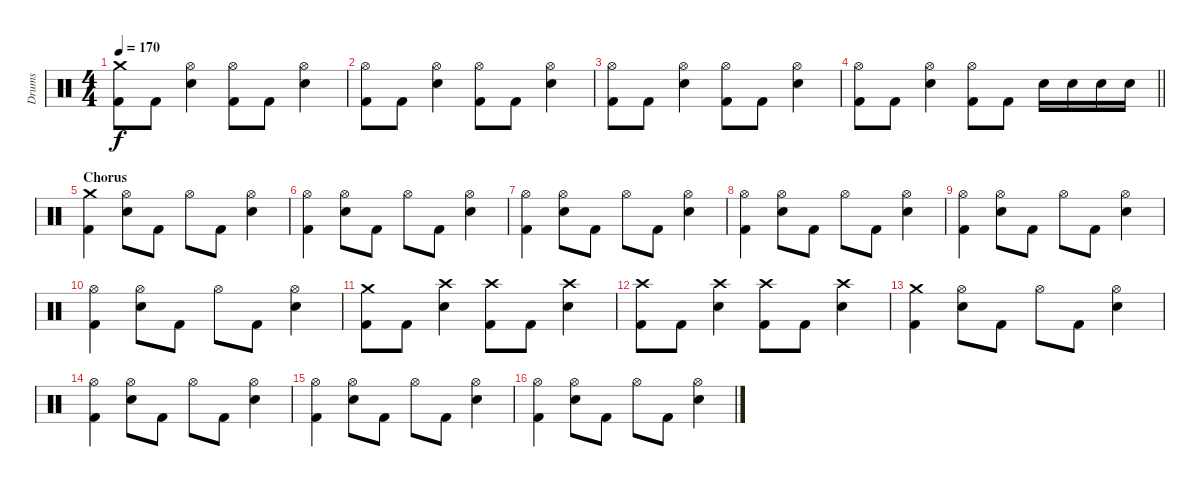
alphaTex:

\track ("Drums" "Drums") {instrument percussion}
\staff {score}
\articulation defaults
\ts (4 4)
\tempo 170
\clef neutral
\ks c
("Crash medium (hit)" "Kick (hit) 2").8{dy f} "Kick (hit) 2".8 ("Hi-Hat (open)" "Electric Snare (hit)").4 ("Hi-Hat (open)" "Kick (hit) 2").8 "Kick (hit) 2".8 ("Hi-Hat (open)" "Electric Snare (hit)").4 |
("Hi-Hat (open)" "Kick (hit) 2").8 "Kick (hit) 2".8 ("Hi-Hat (open)" "Electric Snare (hit)").4 ("Hi-Hat (open)" "Kick (hit) 2").8 "Kick (hit) 2".8 ("Hi-Hat (open)" "Electric Snare (hit)").4 |
("Hi-Hat (open)" "Kick (hit) 2").8 "Kick (hit) 2".8 ("Hi-Hat (open)" "Electric Snare (hit)").4 ("Hi-Hat (open)" "Kick (hit) 2").8 "Kick (hit) 2".8 ("Hi-Hat (open)" "Electric Snare (hit)").4 |
\barLineRight lightlight
("Hi-Hat (open)" "Kick (hit) 2").8 "Kick (hit) 2".8 ("Hi-Hat (open)" "Electric Snare (hit)").4 ("Hi-Hat (open)" "Kick (hit) 2").8 "Kick (hit) 2".8 "Electric Snare (hit)".16 "Electric Snare (hit)".16 "Electric Snare (hit)".16 "Electric Snare (hit)".16 |
\section ("" "Chorus")
("Crash medium (hit)" "Kick (hit) 2").4 ("Hi-Hat (open)" "Electric Snare (hit)").8 "Kick (hit) 2".8 "Hi-Hat (open)".8 "Kick (hit) 2".8 ("Hi-Hat (open)" "Electric Snare (hit)").4 |
("Hi-Hat (open)" "Kick (hit) 2").4 ("Hi-Hat (open)" "Electric Snare (hit)").8 "Kick (hit) 2".8 "Hi-Hat (open)".8 "Kick (hit) 2".8 ("Hi-Hat (open)" "Electric Snare (hit)").4 |
("Hi-Hat (open)" "Kick (hit) 2").4 ("Hi-Hat (open)" "Electric Snare (hit)").8 "Kick (hit) 2".8 "Hi-Hat (open)".8 "Kick (hit) 2".8 ("Hi-Hat (open)" "Electric Snare (hit)").4 |
("Hi-Hat (open)" "Kick (hit) 2").4 ("Hi-Hat (open)" "Electric Snare (hit)").8 "Kick (hit) 2".8 "Hi-Hat (open)".8 "Kick (hit) 2".8 ("Hi-Hat (open)" "Electric Snare (hit)").4 |
("Hi-Hat (open)" "Kick (hit) 2").4 ("Hi-Hat (open)" "Electric Snare (hit)").8 "Kick (hit) 2".8 "Hi-Hat (open)".8 "Kick (hit) 2".8 ("Hi-Hat (open)" "Electric Snare (hit)").4 |
("Hi-Hat (open)" "Kick (hit) 2").4 ("Hi-Hat (open)" "Electric Snare (hit)").8 "Kick (hit) 2".8 "Hi-Hat (open)".8 "Kick (hit) 2".8 ("Hi-Hat (open)" "Electric Snare (hit)").4 |
("Crash medium (hit)" "Kick (hit) 2").8 "Kick (hit) 2".8 ("Crash high (hit)" "Electric Snare (hit)").4 ("Crash high (hit)" "Kick (hit) 2").8 "Kick (hit) 2".8 ("Crash high (hit)" "Electric Snare (hit)").4 |
("Crash high (hit)" "Kick (hit) 2").8 "Kick (hit) 2".8 ("Crash high (hit)" "Electric Snare (hit)").4 ("Crash high (hit)" "Kick (hit) 2").8 "Kick (hit) 2".8 ("Crash high (hit)" "Electric Snare (hit)").4 |
("Crash medium (hit)" "Kick (hit) 2").4 ("Hi-Hat (open)" "Electric Snare (hit)").8 "Kick (hit) 2".8 "Hi-Hat (open)".8 "Kick (hit) 2".8 ("Hi-Hat (open)" "Electric Snare (hit)").4 |
("Hi-Hat (open)" "Kick (hit) 2").4 ("Hi-Hat (open)" "Electric Snare (hit)").8 "Kick (hit) 2".8 "Hi-Hat (open)".8 "Kick (hit) 2".8 ("Hi-Hat (open)" "Electric Snare (hit)").4 |
("Hi-Hat (open)" "Kick (hit) 2").4 ("Hi-Hat (open)" "Electric Snare (hit)").8 "Kick (hit) 2".8 "Hi-Hat (open)".8 "Kick (hit) 2".8 ("Hi-Hat (open)" "Electric Snare (hit)").4 |
("Hi-Hat (open)" "Kick (hit) 2").4 ("Hi-Hat (open)" "Electric Snare (hit)").8 "Kick (hit) 2".8 "Hi-Hat (open)".8 "Kick (hit) 2".8 ("Hi-Hat (open)" "Electric Snare (hit)").4
